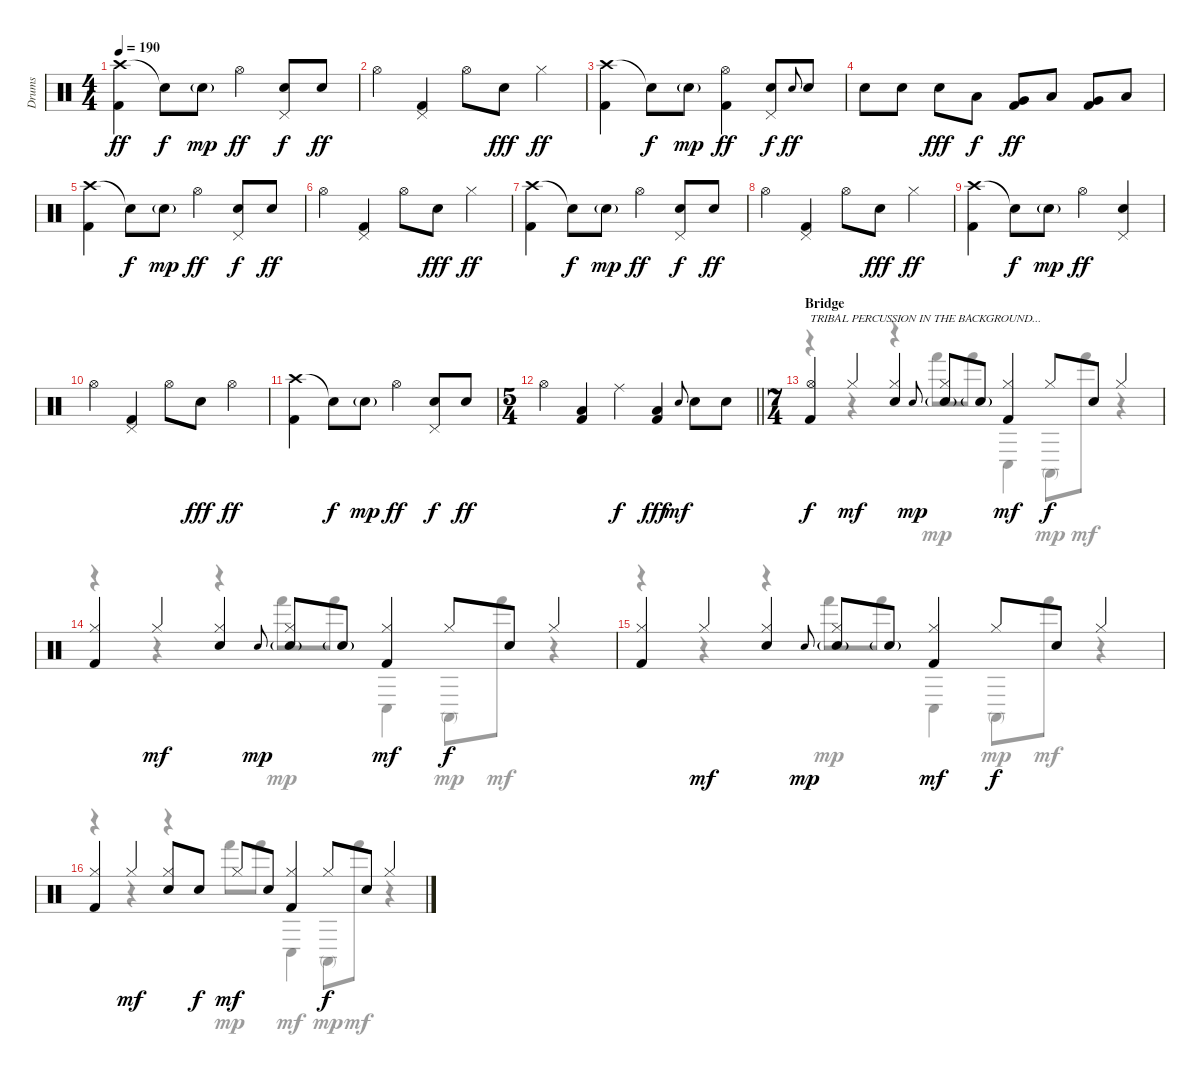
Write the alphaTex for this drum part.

\track ("Drums" "Drums") {instrument percussion}
\staff {score}
\articulation defaults
\voice
\ts (4 4)
\tempo 190
\clef neutral
\ks c
("Crash high (hit)" "Kick (hit) 2").4{dy ff} "Snare (hit)"{t}.8{dy f} "Electric Snare (hit)"{g}.8{dy mp} "Hi-Hat (open)".4{dy ff} ("Pedal Hi-Hat (hit)" "Electric Snare (hit)").8{dy f} "Electric Snare (hit)".8{dy ff} |
"Hi-Hat (open)".4 ("Pedal Hi-Hat (hit)" "Kick (hit) 2").4 "Hi-Hat (open)".8 "Electric Snare (hit)".8{dy fff} "Hi-Hat (closed)".4{dy ff} |
("Crash high (hit)" "Kick (hit) 2").4 "Snare (hit)"{t}.8{dy f} "Electric Snare (hit)"{g}.8{dy mp} ("Hi-Hat (open)" "Kick (hit) 2").4{dy ff} ("Pedal Hi-Hat (hit)" "Electric Snare (hit)").8{dy f} "Electric Snare (hit)".8{gr onbeat dy ff} "Electric Snare (hit)".8 |
"Electric Snare (hit)".8 "Electric Snare (hit)".8 "Electric Snare (hit)".8{dy fff} "Low Tom (hit)".8{dy f} ("Very Low Tom (hit)" "Kick (hit) 2").8{dy ff} "Low Tom (hit)".8 ("Very Low Tom (hit)" "Kick (hit) 2").8 "Low Tom (hit)".8 |
("Crash high (hit)" "Kick (hit) 2").4 "Snare (hit)"{t}.8{dy f} "Electric Snare (hit)"{g}.8{dy mp} "Hi-Hat (open)".4{dy ff} ("Pedal Hi-Hat (hit)" "Electric Snare (hit)").8{dy f} "Electric Snare (hit)".8{dy ff} |
"Hi-Hat (open)".4 ("Pedal Hi-Hat (hit)" "Kick (hit) 2").4 "Hi-Hat (open)".8 "Electric Snare (hit)".8{dy fff} "Hi-Hat (closed)".4{dy ff} |
("Crash high (hit)" "Kick (hit) 2").4 "Snare (hit)"{t}.8{dy f} "Electric Snare (hit)"{g}.8{dy mp} "Hi-Hat (open)".4{dy ff} ("Pedal Hi-Hat (hit)" "Electric Snare (hit)").8{dy f} "Electric Snare (hit)".8{dy ff} |
"Hi-Hat (open)".4 ("Pedal Hi-Hat (hit)" "Kick (hit) 2").4 "Hi-Hat (open)".8 "Electric Snare (hit)".8{dy fff} "Hi-Hat (closed)".4{dy ff} |
("Crash high (hit)" "Kick (hit) 2").4 "Snare (hit)"{t}.8{dy f} "Electric Snare (hit)"{g}.8{dy mp} "Hi-Hat (open)".4{dy ff} ("Pedal Hi-Hat (hit)" "Electric Snare (hit)").4 |
"Hi-Hat (open)".4 ("Pedal Hi-Hat (hit)" "Kick (hit) 2").4 "Hi-Hat (open)".8 "Electric Snare (hit)".8{dy fff} "Hi-Hat (open)".4{dy ff} |
("Crash high (hit)" "Kick (hit) 2").4 "Snare (hit)"{t}.8{dy f} "Electric Snare (hit)"{g}.8{dy mp} "Hi-Hat (open)".4{dy ff} ("Pedal Hi-Hat (hit)" "Electric Snare (hit)").8{dy f} "Electric Snare (hit)".8{dy ff} |
\ts (5 4)
\barLineRight lightlight "Hi-Hat (open)".4
("Low Tom (hit)" "Kick (hit) 2").4 "Ride (middle)".4{dy f} ("Low Tom (hit)" "Kick (hit) 2").4{dy fff} "Electric Snare (hit)".8{gr onbeat dy mf} "Electric Snare (hit)".8 "Electric Snare (hit)".8 |
\ts (7 4)
\section ("" "Bridge")
("Hi-Hat (open)" "Kick (hit) 2").4{txt "TRIBAL PERCUSSION IN THE BACKGROUND..." dy f} "Hi-Hat (closed)".4{dy mf} ("Hi-Hat (closed)" "Electric Snare (hit)").4 "Electric Snare (hit)".8{gr onbeat dy mp} ("Hi-Hat (closed)" "Electric Snare (hit)"{g}).8 "Electric Snare (hit)"{g}.8 ("Hi-Hat (closed)" "Kick (hit) 2").4{dy mf} "Hi-Hat (closed)".8{dy f} "Electric Snare (hit)".8 "Hi-Hat (closed)".4 |
("Hi-Hat (closed)" "Kick (hit) 2").4 "Hi-Hat (closed)".4{dy mf} ("Hi-Hat (closed)" "Electric Snare (hit)").4 "Electric Snare (hit)".8{gr onbeat dy mp} ("Hi-Hat (closed)" "Electric Snare (hit)"{g}).8 "Electric Snare (hit)"{g}.8 ("Hi-Hat (closed)" "Kick (hit) 2").4{dy mf} "Hi-Hat (closed)".8{dy f} "Electric Snare (hit)".8 "Hi-Hat (closed)".4 |
("Hi-Hat (closed)" "Kick (hit) 2").4 "Hi-Hat (closed)".4{dy mf} ("Hi-Hat (closed)" "Electric Snare (hit)").4 "Electric Snare (hit)".8{gr onbeat dy mp} ("Hi-Hat (closed)" "Electric Snare (hit)"{g}).8 "Electric Snare (hit)"{g}.8 ("Hi-Hat (closed)" "Kick (hit) 2").4{dy mf} "Hi-Hat (closed)".8{dy f} "Electric Snare (hit)".8 "Hi-Hat (closed)".4 |
("Hi-Hat (closed)" "Kick (hit) 2").4 "Hi-Hat (closed)".4{dy mf} ("Hi-Hat (closed)" "Electric Snare (hit)").8 "Electric Snare (hit)".8{dy f} "Hi-Hat (closed)".8{dy mf} "Electric Snare (hit)".8 ("Hi-Hat (closed)" "Kick (hit) 2").4 "Hi-Hat (closed)".8{dy f} "Electric Snare (hit)".8 "Hi-Hat (closed)".4
\voice
\clef neutral
\ottava regular
\simile none
\ks c
|
|
|
|
|
|
|
|
|
|
|
\barLineRight lightlight
|
r.4 r.4 r.4 "Hand (hit)".8{dy mp} "Hand (hit)".8 "Conga low (hit)".4{dy mf} "Conga high (mute)".8{dy mp} "Hand (hit)".8{dy mf} r.4 |
r.4 r.4 r.4 "Hand (hit)".8{dy mp} "Hand (hit)".8 "Conga low (hit)".4{dy mf} "Conga high (mute)".8{dy mp} "Hand (hit)".8{dy mf} r.4 |
r.4 r.4 r.4 "Hand (hit)".8{dy mp} "Hand (hit)".8 "Conga low (hit)".4{dy mf} "Conga high (mute)".8{dy mp} "Hand (hit)".8{dy mf} r.4 |
r.4 r.4 r.4 "Hand (hit)".8{dy mp} "Hand (hit)".8 "Conga low (hit)".4{dy mf} "Conga high (mute)".8{dy mp} "Hand (hit)".8{dy mf} r.4
